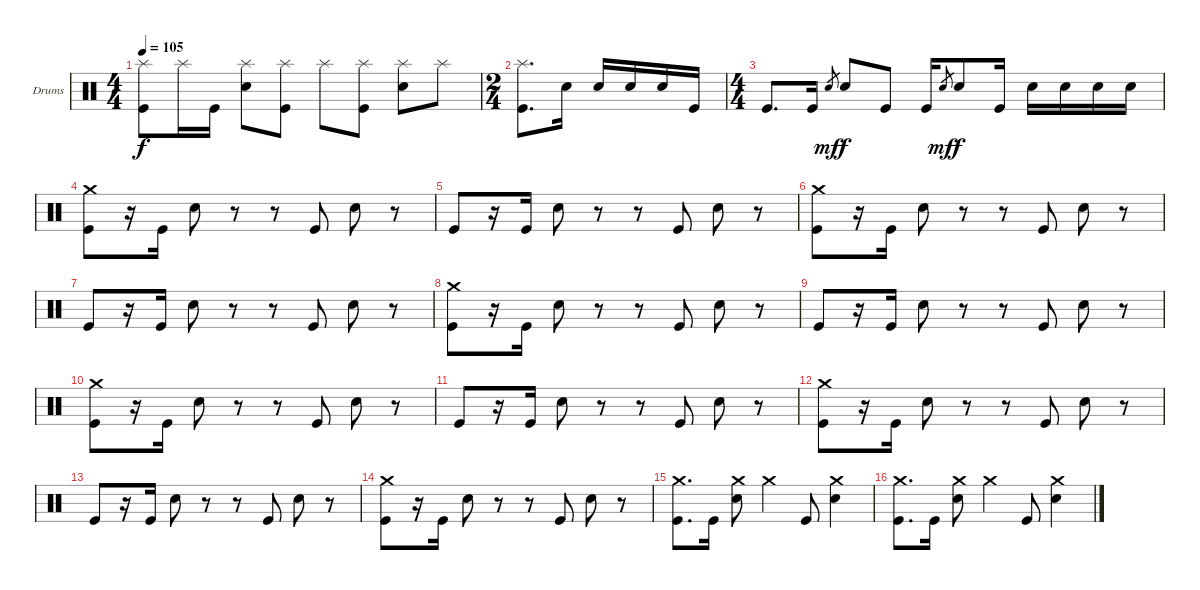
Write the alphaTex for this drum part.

\defaultSystemsLayout 4
\bracketExtendMode nobrackets
\firstSystemTrackNameOrientation horizontal
\otherSystemsTrackNameOrientation horizontal
\track ("Dave Krusen" "Drums") {instrument percussion}
\staff {score}
\articulation defaults
\ts (4 4)
\tempo 105
\clef neutral
\ks c
("Kick (hit)" "Splash (hit)").8{dy f} "Splash (hit)".16 "Kick (hit)".16 ("Snare (hit) 2" "Splash (hit)").8 ("Kick (hit)" "Splash (hit)").8 "Splash (hit)".8 ("Kick (hit)" "Splash (hit)").8 ("Snare (hit) 2" "Splash (hit)").8 "Splash (hit)".8 |
\ts (2 4)
("Kick (hit)" "Splash (hit)").8{d} "Snare (hit) 2".16 "Snare (hit) 2".16 "Snare (hit) 2".16 "Snare (hit) 2".16 "Kick (hit)".16 |
\ts (4 4)
"Kick (hit)".8{d} "Kick (hit)".16 "Snare (hit) 2".8{gr dy mf} "Snare (hit) 2".8{dy f} "Kick (hit)".8 "Kick (hit)".16 "Snare (hit) 2".8{gr dy mf} "Snare (hit) 2".8{dy f} "Kick (hit)".16 "Snare (hit) 2".16 "Snare (hit) 2".16 "Snare (hit) 2".16 "Snare (hit) 2".16 |
("Crash medium (hit)" "Kick (hit)").8 r.16 "Kick (hit)".16 "Snare (hit) 2".8 r.8 r.8 "Kick (hit)".8 "Snare (hit) 2".8 r.8 |
"Kick (hit)".8 r.16 "Kick (hit)".16 "Snare (hit) 2".8 r.8 r.8 "Kick (hit)".8 "Snare (hit) 2".8 r.8 |
("Crash medium (hit)" "Kick (hit)").8 r.16 "Kick (hit)".16 "Snare (hit) 2".8 r.8 r.8 "Kick (hit)".8 "Snare (hit) 2".8 r.8 |
"Kick (hit)".8 r.16 "Kick (hit)".16 "Snare (hit) 2".8 r.8 r.8 "Kick (hit)".8 "Snare (hit) 2".8 r.8 |
("Crash medium (hit)" "Kick (hit)").8 r.16 "Kick (hit)".16 "Snare (hit) 2".8 r.8 r.8 "Kick (hit)".8 "Snare (hit) 2".8 r.8 |
"Kick (hit)".8 r.16 "Kick (hit)".16 "Snare (hit) 2".8 r.8 r.8 "Kick (hit)".8 "Snare (hit) 2".8 r.8 |
("Crash medium (hit)" "Kick (hit)").8 r.16 "Kick (hit)".16 "Snare (hit) 2".8 r.8 r.8 "Kick (hit)".8 "Snare (hit) 2".8 r.8 |
"Kick (hit)".8 r.16 "Kick (hit)".16 "Snare (hit) 2".8 r.8 r.8 "Kick (hit)".8 "Snare (hit) 2".8 r.8 |
("Crash medium (hit)" "Kick (hit)").8 r.16 "Kick (hit)".16 "Snare (hit) 2".8 r.8 r.8 "Kick (hit)".8 "Snare (hit) 2".8 r.8 |
"Kick (hit)".8 r.16 "Kick (hit)".16 "Snare (hit) 2".8 r.8 r.8 "Kick (hit)".8 "Snare (hit) 2".8 r.8 |
("Crash medium (hit)" "Kick (hit)").8 r.16 "Kick (hit)".16 "Snare (hit) 2".8 r.8 r.8 "Kick (hit)".8 "Snare (hit) 2".8 r.8 |
("Crash medium (hit)" "Kick (hit)").8{d} "Kick (hit)".16 ("Crash medium (hit)" "Snare (hit) 2").8 "Crash medium (hit)".4 "Kick (hit)".8 ("Crash medium (hit)" "Snare (hit) 2").4 |
("Crash medium (hit)" "Kick (hit)").8{d} "Kick (hit)".16 ("Crash medium (hit)" "Snare (hit) 2").8 "Crash medium (hit)".4 "Kick (hit)".8 ("Crash medium (hit)" "Snare (hit) 2").4
